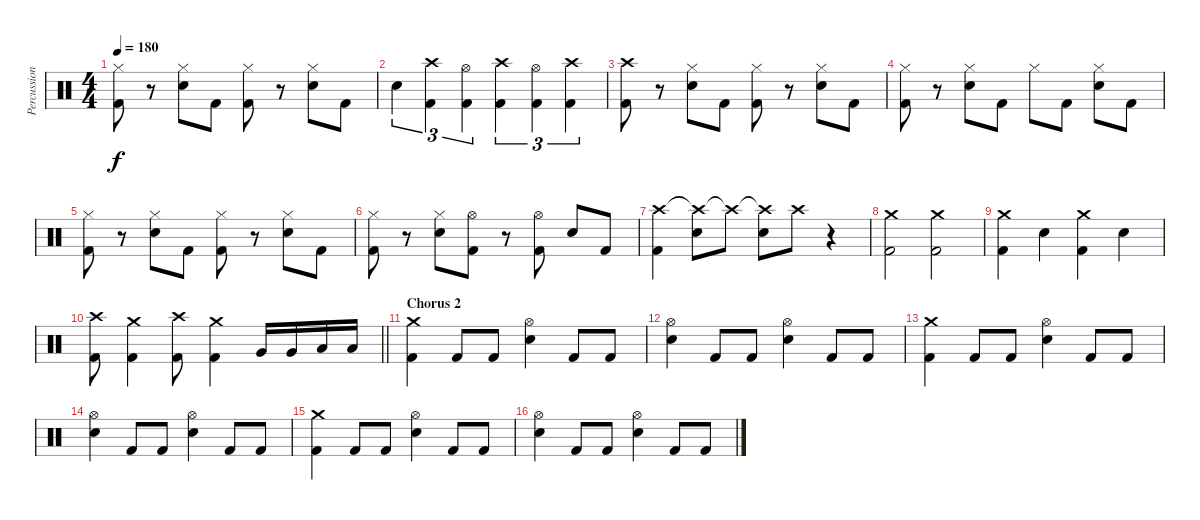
\track ("Percussion" "Percussion") {instrument percussion}
\staff {score}
\articulation defaults
\ts (4 4)
\tempo 180
\clef neutral
\ks c
("Hi-Hat (closed)" "Kick (hit) 2").8{dy f} r.8 ("Hi-Hat (closed)" "Snare (hit) 2").8 "Kick (hit) 2".8 ("Hi-Hat (closed)" "Kick (hit) 2").8 r.8 ("Hi-Hat (closed)" "Snare (hit) 2").8 "Kick (hit) 2".8 |
"Snare (hit) 2".4{tu (3 2)} ("Crash high (hit)" "Kick (hit) 2").4{tu (3 2)} ("Hi-Hat (open)" "Kick (hit) 2").4{tu (3 2)} ("Crash high (hit)" "Kick (hit) 2").4{tu (3 2)} ("Hi-Hat (open)" "Kick (hit) 2").4{tu (3 2)} ("Crash high (hit)" "Kick (hit) 2").4{tu (3 2)} |
("Crash high (hit)" "Kick (hit) 2").8 r.8 ("Hi-Hat (closed)" "Snare (hit) 2").8 "Kick (hit) 2".8 ("Hi-Hat (closed)" "Kick (hit) 2").8 r.8 ("Hi-Hat (closed)" "Snare (hit) 2").8 "Kick (hit) 2".8 |
("Hi-Hat (closed)" "Kick (hit) 2").8 r.8 ("Hi-Hat (closed)" "Snare (hit) 2").8 "Kick (hit) 2".8 "Hi-Hat (closed)".8 "Kick (hit) 2".8 ("Hi-Hat (closed)" "Snare (hit) 2").8 "Kick (hit) 2".8 |
("Hi-Hat (closed)" "Kick (hit) 2").8 r.8 ("Hi-Hat (closed)" "Snare (hit) 2").8 "Kick (hit) 2".8 ("Hi-Hat (closed)" "Kick (hit) 2").8 r.8 ("Hi-Hat (closed)" "Snare (hit) 2").8 "Kick (hit) 2".8 |
("Hi-Hat (closed)" "Kick (hit) 2").8 r.8 ("Hi-Hat (closed)" "Snare (hit) 2").8 ("Hi-Hat (open)" "Kick (hit) 2").8 r.8 ("Hi-Hat (open)" "Kick (hit) 2").8 "Snare (hit) 2".8 "Kick (hit) 2".8 |
("Crash high (hit)" "Kick (hit) 2").4 ("Crash high (hit)"{t} "Snare (hit) 2").8 "Crash high (hit)"{t}.8 ("Crash high (hit)"{t} "Snare (hit) 2").8 "Crash high (hit)".8 r.4 |
("Crash medium (hit)" "Kick (hit) 2").2 ("Crash medium (hit)" "Kick (hit) 2").2 |
("Crash medium (hit)" "Kick (hit) 2").4 "Snare (hit) 2".4 ("Crash medium (hit)" "Kick (hit) 2").4 "Snare (hit) 2".4 |
\barLineRight lightlight
("Crash high (hit)" "Kick (hit) 2").8 ("Crash medium (hit)" "Kick (hit) 2").4 ("Crash high (hit)" "Kick (hit) 2").8 ("Crash medium (hit)" "Kick (hit) 2").4 "Very Low Tom (hit)".16 "Very Low Tom (hit)".16 "Low Floor Tom (hit)".16 "Low Floor Tom (hit)".16 |
\section ("" "Chorus 2")
("Crash medium (hit)" "Kick (hit) 2").4 "Kick (hit) 2".8 "Kick (hit) 2".8 ("Hi-Hat (open)" "Snare (hit) 2").4 "Kick (hit) 2".8 "Kick (hit) 2".8 |
("Hi-Hat (open)" "Snare (hit) 2").4 "Kick (hit) 2".8 "Kick (hit) 2".8 ("Hi-Hat (open)" "Snare (hit) 2").4 "Kick (hit) 2".8 "Kick (hit) 2".8 |
("Crash medium (hit)" "Kick (hit) 2").4 "Kick (hit) 2".8 "Kick (hit) 2".8 ("Hi-Hat (open)" "Snare (hit) 2").4 "Kick (hit) 2".8 "Kick (hit) 2".8 |
("Hi-Hat (open)" "Snare (hit) 2").4 "Kick (hit) 2".8 "Kick (hit) 2".8 ("Hi-Hat (open)" "Snare (hit) 2").4 "Kick (hit) 2".8 "Kick (hit) 2".8 |
("Crash medium (hit)" "Kick (hit) 2").4 "Kick (hit) 2".8 "Kick (hit) 2".8 ("Hi-Hat (open)" "Snare (hit) 2").4 "Kick (hit) 2".8 "Kick (hit) 2".8 |
("Hi-Hat (open)" "Snare (hit) 2").4 "Kick (hit) 2".8 "Kick (hit) 2".8 ("Hi-Hat (open)" "Snare (hit) 2").4 "Kick (hit) 2".8 "Kick (hit) 2".8
